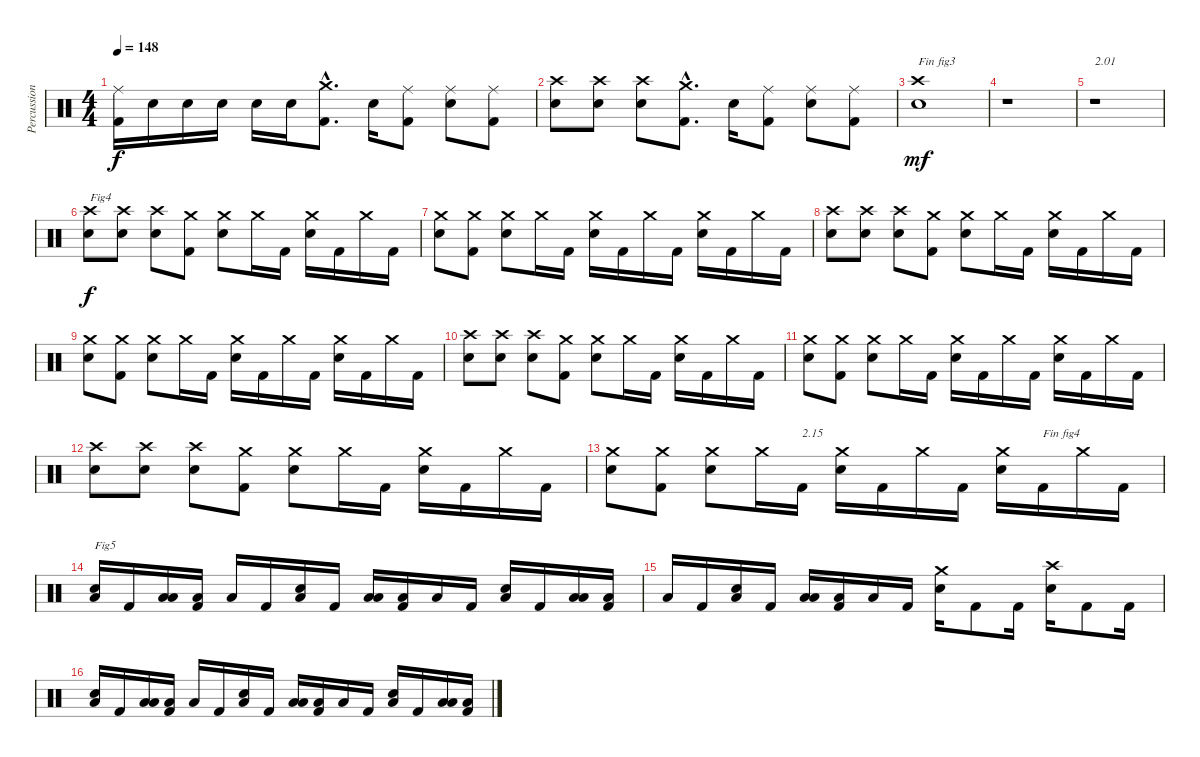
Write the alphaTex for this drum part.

\track ("Percussions" "Percussion") {instrument percussion}
\staff {score}
\articulation defaults
\ts (4 4)
\tempo 148
\clef neutral
\ks c
("Kick (hit) 2" "Ride (middle)").16{dy f} "Electric Snare (hit)".16 "Electric Snare (hit)".16 "Electric Snare (hit)".16 "Electric Snare (hit)".16 "Electric Snare (hit)".16 ("Kick (hit) 2"{hac} "Crash medium (hit)"{hac}).8{d} "Electric Snare (hit)".16 ("Kick (hit) 2" "Ride (middle)").8 ("Electric Snare (hit)" "Ride (middle)").8 ("Kick (hit) 2" "Ride (middle)").8 |
("Electric Snare (hit)" "Crash high (hit)").8 ("Electric Snare (hit)" "Crash high (hit)").8 ("Electric Snare (hit)" "Crash high (hit)").8 ("Kick (hit) 2"{hac} "Crash medium (hit)"{hac}).8{d} "Electric Snare (hit)".16 ("Kick (hit) 2" "Ride (middle)").8 ("Electric Snare (hit)" "Ride (middle)").8 ("Kick (hit) 2" "Ride (middle)").8 |
("Electric Snare (hit)" "Crash high (hit)").1{txt "Fin fig3" dy mf} |
r.1 |
r.1{txt "2.01"} |
("Electric Snare (hit)" "Crash high (hit)").8{txt "Fig4" dy f} ("Electric Snare (hit)" "Crash high (hit)").8 ("Electric Snare (hit)" "Crash high (hit)").8 ("Kick (hit) 2" "Crash medium (hit)").8 ("Electric Snare (hit)" "Crash medium (hit)").8 "Crash medium (hit)".16 "Kick (hit) 2".16 ("Electric Snare (hit)" "Crash medium (hit)").16 "Kick (hit) 2".16 "Crash medium (hit)".16 "Kick (hit) 2".16 |
("Electric Snare (hit)" "Crash medium (hit)").8 ("Kick (hit) 2" "Crash medium (hit)").8 ("Electric Snare (hit)" "Crash medium (hit)").8 "Crash medium (hit)".16 "Kick (hit) 2".16 ("Electric Snare (hit)" "Crash medium (hit)").16 "Kick (hit) 2".16 "Crash medium (hit)".16 "Kick (hit) 2".16 ("Electric Snare (hit)" "Crash medium (hit)").16 "Kick (hit) 2".16 "Crash medium (hit)".16 "Kick (hit) 2".16 |
("Electric Snare (hit)" "Crash high (hit)").8 ("Electric Snare (hit)" "Crash high (hit)").8 ("Electric Snare (hit)" "Crash high (hit)").8 ("Kick (hit) 2" "Crash medium (hit)").8 ("Electric Snare (hit)" "Crash medium (hit)").8 "Crash medium (hit)".16 "Kick (hit) 2".16 ("Electric Snare (hit)" "Crash medium (hit)").16 "Kick (hit) 2".16 "Crash medium (hit)".16 "Kick (hit) 2".16 |
("Electric Snare (hit)" "Crash medium (hit)").8 ("Kick (hit) 2" "Crash medium (hit)").8 ("Electric Snare (hit)" "Crash medium (hit)").8 "Crash medium (hit)".16 "Kick (hit) 2".16 ("Electric Snare (hit)" "Crash medium (hit)").16 "Kick (hit) 2".16 "Crash medium (hit)".16 "Kick (hit) 2".16 ("Electric Snare (hit)" "Crash medium (hit)").16 "Kick (hit) 2".16 "Crash medium (hit)".16 "Kick (hit) 2".16 |
("Electric Snare (hit)" "Crash high (hit)").8 ("Electric Snare (hit)" "Crash high (hit)").8 ("Electric Snare (hit)" "Crash high (hit)").8 ("Kick (hit) 2" "Crash medium (hit)").8 ("Electric Snare (hit)" "Crash medium (hit)").8 "Crash medium (hit)".16 "Kick (hit) 2".16 ("Electric Snare (hit)" "Crash medium (hit)").16 "Kick (hit) 2".16 "Crash medium (hit)".16 "Kick (hit) 2".16 |
("Electric Snare (hit)" "Crash medium (hit)").8 ("Kick (hit) 2" "Crash medium (hit)").8 ("Electric Snare (hit)" "Crash medium (hit)").8 "Crash medium (hit)".16 "Kick (hit) 2".16 ("Electric Snare (hit)" "Crash medium (hit)").16 "Kick (hit) 2".16 "Crash medium (hit)".16 "Kick (hit) 2".16 ("Electric Snare (hit)" "Crash medium (hit)").16 "Kick (hit) 2".16 "Crash medium (hit)".16 "Kick (hit) 2".16 |
("Electric Snare (hit)" "Crash high (hit)").8 ("Electric Snare (hit)" "Crash high (hit)").8 ("Electric Snare (hit)" "Crash high (hit)").8 ("Kick (hit) 2" "Crash medium (hit)").8 ("Electric Snare (hit)" "Crash medium (hit)").8 "Crash medium (hit)".16 "Kick (hit) 2".16 ("Electric Snare (hit)" "Crash medium (hit)").16 "Kick (hit) 2".16 "Crash medium (hit)".16 "Kick (hit) 2".16 |
("Electric Snare (hit)" "Crash medium (hit)").8 ("Kick (hit) 2" "Crash medium (hit)").8 ("Electric Snare (hit)" "Crash medium (hit)").8 "Crash medium (hit)".16 "Kick (hit) 2".16{txt "2.15"} ("Electric Snare (hit)" "Crash medium (hit)").16 "Kick (hit) 2".16 "Crash medium (hit)".16 "Kick (hit) 2".16 ("Electric Snare (hit)" "Crash medium (hit)").16 "Kick (hit) 2".16{txt "Fin fig4"} "Crash medium (hit)".16 "Kick (hit) 2".16 |
("Electric Snare (hit)" "Low Floor Tom (hit)").16{txt "Fig5"} "Kick (hit) 2".16 ("Low Tom (hit)" "Low Floor Tom (hit)").16 ("Kick (hit) 2" "Low Tom (hit)").16 "Low Floor Tom (hit)".16 "Kick (hit) 2".16 ("Electric Snare (hit)" "Low Floor Tom (hit)").16 "Kick (hit) 2".16 ("Low Tom (hit)" "Low Floor Tom (hit)").16 ("Kick (hit) 2" "Low Tom (hit)").16 "Low Floor Tom (hit)".16 "Kick (hit) 2".16 ("Electric Snare (hit)" "Low Floor Tom (hit)").16 "Kick (hit) 2".16 ("Low Tom (hit)" "Low Floor Tom (hit)").16 ("Kick (hit) 2" "Low Tom (hit)").16 |
"Low Floor Tom (hit)".16 "Kick (hit) 2".16 ("Electric Snare (hit)" "Low Floor Tom (hit)").16 "Kick (hit) 2".16 ("Low Tom (hit)" "Low Floor Tom (hit)").16 ("Kick (hit) 2" "Low Tom (hit)").16 "Low Floor Tom (hit)".16 "Kick (hit) 2".16 ("Electric Snare (hit)" "Crash medium (hit)").16 "Kick (hit) 2".8 "Kick (hit) 2".16 ("Electric Snare (hit)" "Crash high (hit)").16 "Kick (hit) 2".8 "Kick (hit) 2".16 |
("Electric Snare (hit)" "Low Floor Tom (hit)").16 "Kick (hit) 2".16 ("Low Tom (hit)" "Low Floor Tom (hit)").16 ("Kick (hit) 2" "Low Tom (hit)").16 "Low Floor Tom (hit)".16 "Kick (hit) 2".16 ("Electric Snare (hit)" "Low Floor Tom (hit)").16 "Kick (hit) 2".16 ("Low Tom (hit)" "Low Floor Tom (hit)").16 ("Kick (hit) 2" "Low Tom (hit)").16 "Low Floor Tom (hit)".16 "Kick (hit) 2".16 ("Electric Snare (hit)" "Low Floor Tom (hit)").16 "Kick (hit) 2".16 ("Low Tom (hit)" "Low Floor Tom (hit)").16 ("Kick (hit) 2" "Low Tom (hit)").16
